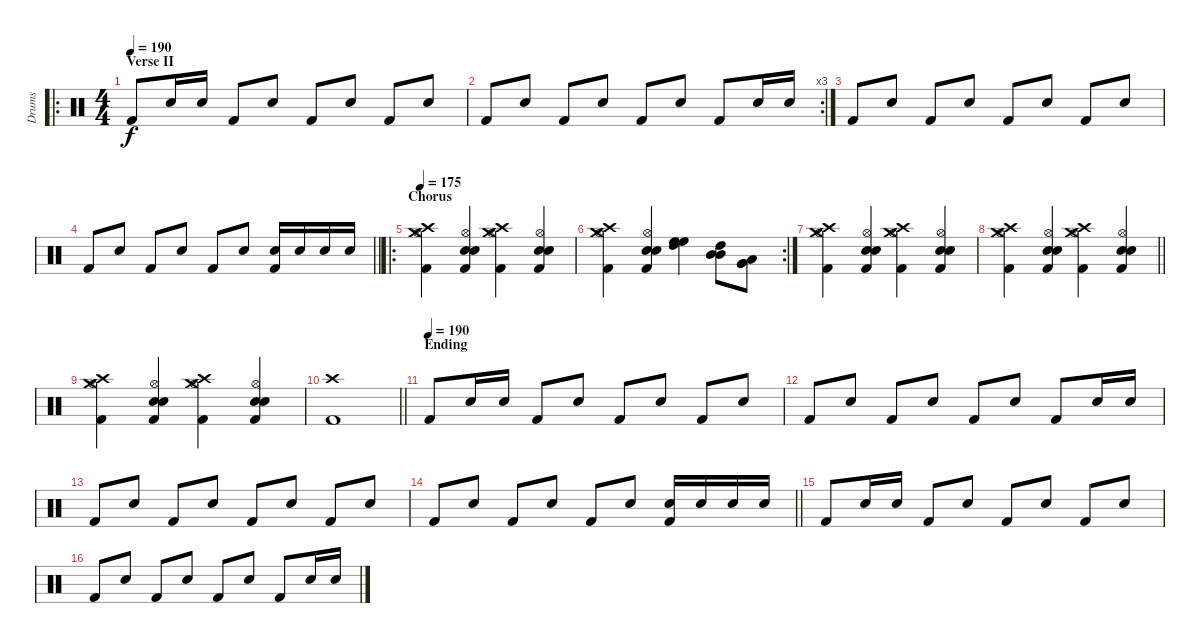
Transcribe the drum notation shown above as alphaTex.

\track ("Drums" "Drums") {instrument percussion}
\staff {score}
\articulation defaults
\ro
\ts (4 4)
\section ("" "Verse II")
\tempo 190
\clef neutral
\ks c "Kick (hit) 2".8{dy f} "Electric Snare (hit)".16 "Electric Snare (hit)".16 "Kick (hit) 2".8 "Electric Snare (hit)".8 "Kick (hit) 2".8 "Electric Snare (hit)".8 "Kick (hit) 2".8 "Electric Snare (hit)".8
|
\rc 3 "Kick (hit) 2".8 "Electric Snare (hit)".8 "Kick (hit) 2".8 "Electric Snare (hit)".8 "Kick (hit) 2".8 "Electric Snare (hit)".8 "Kick (hit) 2".8 "Electric Snare (hit)".16 "Electric Snare (hit)".16
|
"Kick (hit) 2".8 "Electric Snare (hit)".8 "Kick (hit) 2".8 "Electric Snare (hit)".8 "Kick (hit) 2".8 "Electric Snare (hit)".8 "Kick (hit) 2".8 "Electric Snare (hit)".8 |
\barLineRight lightlight "Kick (hit) 2".8 "Electric Snare (hit)".8 "Kick (hit) 2".8 "Electric Snare (hit)".8 "Kick (hit) 2".8 "Electric Snare (hit)".8
("Electric Snare (hit)" "Kick (hit) 2").16 "Electric Snare (hit)".16 "Electric Snare (hit)".16 "Electric Snare (hit)".16 |
\ro
\section ("" "Chorus")
\tempo 175
("Crash high (hit)" "Hi-Hat (open)" "Kick (hit) 2" "Crash medium (hit)").4 ("Hi-Hat (open)" "Snare (hit) 2" "Kick (hit) 2" "Electric Snare (hit)").4 ("Crash high (hit)" "Hi-Hat (open)" "Kick (hit) 2" "Crash medium (hit)").4 ("Hi-Hat (open)" "Snare (hit) 2" "Kick (hit) 2" "Electric Snare (hit)").4 |
\rc 2
("Crash high (hit)" "Hi-Hat (open)" "Kick (hit) 2" "Crash medium (hit)").4 ("Hi-Hat (open)" "Snare (hit) 2" "Kick (hit) 2" "Electric Snare (hit)").4 ("High Floor Tom (hit)" "High Tom (hit)" "High Floor Tom (hit)").4 ("High Tom (hit)" "Mid Tom (hit)" "Mid Tom (hit)").8 ("Low Tom (hit)" "Very Low Tom (hit)" "Very Low Tom (hit)").8 |
("Crash high (hit)" "Hi-Hat (open)" "Kick (hit) 2" "Crash medium (hit)").4 ("Hi-Hat (open)" "Snare (hit) 2" "Kick (hit) 2" "Electric Snare (hit)").4 ("Crash high (hit)" "Hi-Hat (open)" "Kick (hit) 2" "Crash medium (hit)").4 ("Hi-Hat (open)" "Snare (hit) 2" "Kick (hit) 2" "Electric Snare (hit)").4 |
\barLineRight lightlight
("Crash high (hit)" "Hi-Hat (open)" "Kick (hit) 2" "Crash medium (hit)").4 ("Hi-Hat (open)" "Snare (hit) 2" "Kick (hit) 2" "Electric Snare (hit)").4 ("Crash high (hit)" "Hi-Hat (open)" "Kick (hit) 2" "Crash medium (hit)").4 ("Hi-Hat (open)" "Snare (hit) 2" "Kick (hit) 2" "Electric Snare (hit)").4 |
("Crash high (hit)" "Hi-Hat (open)" "Kick (hit) 2" "Crash medium (hit)").4 ("Hi-Hat (open)" "Snare (hit) 2" "Kick (hit) 2" "Electric Snare (hit)").4 ("Crash high (hit)" "Hi-Hat (open)" "Kick (hit) 2" "Crash medium (hit)").4 ("Hi-Hat (open)" "Snare (hit) 2" "Kick (hit) 2" "Electric Snare (hit)").4 |
\barLineRight lightlight
("Crash high (hit)" "Kick (hit) 2").1 |
\section ("" "Ending")
\tempo (190)
"Kick (hit) 2".8 "Electric Snare (hit)".16 "Electric Snare (hit)".16 "Kick (hit) 2".8 "Electric Snare (hit)".8 "Kick (hit) 2".8 "Electric Snare (hit)".8 "Kick (hit) 2".8 "Electric Snare (hit)".8 |
"Kick (hit) 2".8 "Electric Snare (hit)".8 "Kick (hit) 2".8 "Electric Snare (hit)".8 "Kick (hit) 2".8 "Electric Snare (hit)".8 "Kick (hit) 2".8 "Electric Snare (hit)".16 "Electric Snare (hit)".16 |
"Kick (hit) 2".8 "Electric Snare (hit)".8 "Kick (hit) 2".8 "Electric Snare (hit)".8 "Kick (hit) 2".8 "Electric Snare (hit)".8 "Kick (hit) 2".8 "Electric Snare (hit)".8 |
\barLineRight lightlight "Kick (hit) 2".8 "Electric Snare (hit)".8 "Kick (hit) 2".8 "Electric Snare (hit)".8 "Kick (hit) 2".8 "Electric Snare (hit)".8
("Electric Snare (hit)" "Kick (hit) 2").16 "Electric Snare (hit)".16 "Electric Snare (hit)".16 "Electric Snare (hit)".16 |
"Kick (hit) 2".8 "Electric Snare (hit)".16 "Electric Snare (hit)".16 "Kick (hit) 2".8 "Electric Snare (hit)".8 "Kick (hit) 2".8 "Electric Snare (hit)".8 "Kick (hit) 2".8 "Electric Snare (hit)".8 |
"Kick (hit) 2".8 "Electric Snare (hit)".8 "Kick (hit) 2".8 "Electric Snare (hit)".8 "Kick (hit) 2".8 "Electric Snare (hit)".8 "Kick (hit) 2".8 "Electric Snare (hit)".16 "Electric Snare (hit)".16
